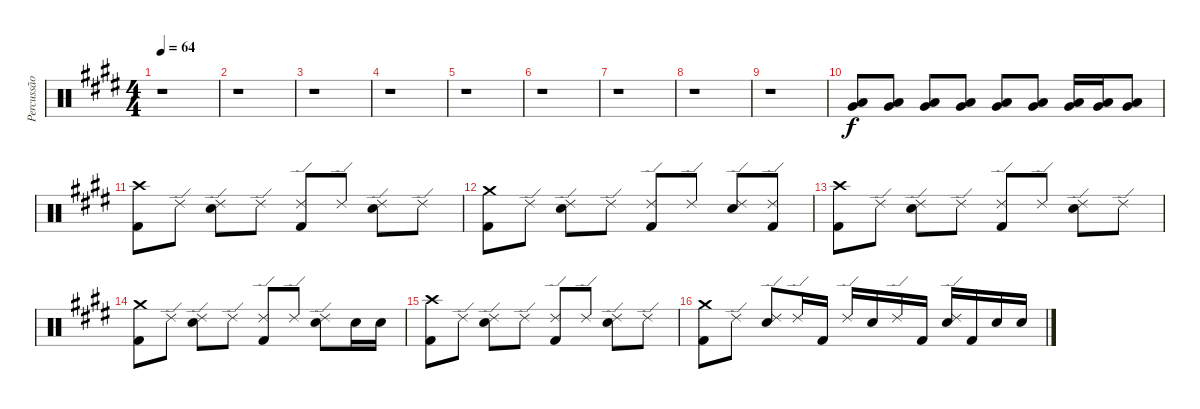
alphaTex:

\track ("Percussão" "Percussão") {instrument percussion}
\staff {score}
\articulation defaults
\ts (4 4)
\tempo 64
\clef neutral
\ks e
r.1{dy f} |
r.1 |
r.1 |
r.1 |
r.1 |
r.1 |
r.1 |
r.1 |
r.1 |
("Very Low Tom (hit)" "Low Floor Tom (hit)").8 ("Very Low Tom (hit)" "Low Floor Tom (hit)").8 ("Very Low Tom (hit)" "Low Floor Tom (hit)").8 ("Very Low Tom (hit)" "Low Floor Tom (hit)").8 ("Very Low Tom (hit)" "Low Floor Tom (hit)").8 ("Very Low Tom (hit)" "Low Floor Tom (hit)").8 ("Very Low Tom (hit)" "Low Floor Tom (hit)").16 ("Very Low Tom (hit)" "Low Floor Tom (hit)").16 ("Very Low Tom (hit)" "Low Floor Tom (hit)").8 |
("Crash high (hit)" "Kick (hit) 2").8 "Ride (edge) 2".8 ("Ride (edge) 2" "Electric Snare (hit)").8 "Ride (edge) 2".8 ("Ride (edge) 2" "Kick (hit) 2").8 "Ride (edge) 2".8 ("Ride (edge) 2" "Electric Snare (hit)").8 "Ride (edge) 2".8 |
("Crash medium (hit)" "Kick (hit) 2").8 "Ride (edge) 2".8 ("Ride (edge) 2" "Electric Snare (hit)").8 "Ride (edge) 2".8 ("Ride (edge) 2" "Kick (hit) 2").8 "Ride (edge) 2".8 ("Ride (edge) 2" "Electric Snare (hit)").8 ("Ride (edge) 2" "Kick (hit) 2").8 |
("Crash high (hit)" "Kick (hit) 2").8 "Ride (edge) 2".8 ("Ride (edge) 2" "Electric Snare (hit)").8 "Ride (edge) 2".8 ("Ride (edge) 2" "Kick (hit) 2").8 "Ride (edge) 2".8 ("Ride (edge) 2" "Electric Snare (hit)").8 "Ride (edge) 2".8 |
("Crash medium (hit)" "Kick (hit) 2").8 "Ride (edge) 2".8 ("Ride (edge) 2" "Electric Snare (hit)").8 "Ride (edge) 2".8 ("Ride (edge) 2" "Kick (hit) 2").8 "Ride (edge) 2".8 ("Ride (edge) 2" "Electric Snare (hit)").8 "Electric Snare (hit)".16 "Electric Snare (hit)".16 |
("Crash high (hit)" "Kick (hit) 2").8 "Ride (edge) 2".8 ("Ride (edge) 2" "Electric Snare (hit)").8 "Ride (edge) 2".8 ("Ride (edge) 2" "Kick (hit) 2").8 "Ride (edge) 2".8 ("Ride (edge) 2" "Electric Snare (hit)").8 "Ride (edge) 2".8 |
("Crash medium (hit)" "Kick (hit) 2").8 "Ride (edge) 2".8 ("Ride (edge) 2" "Electric Snare (hit)").8 "Ride (edge) 2".16 "Kick (hit) 2".16 "Ride (edge) 2".16 "Electric Snare (hit)".16 "Ride (edge) 2".16 "Kick (hit) 2".16 ("Ride (edge) 2" "Electric Snare (hit)").16 "Kick (hit) 2".16 "Electric Snare (hit)".16 "Electric Snare (hit)".16
